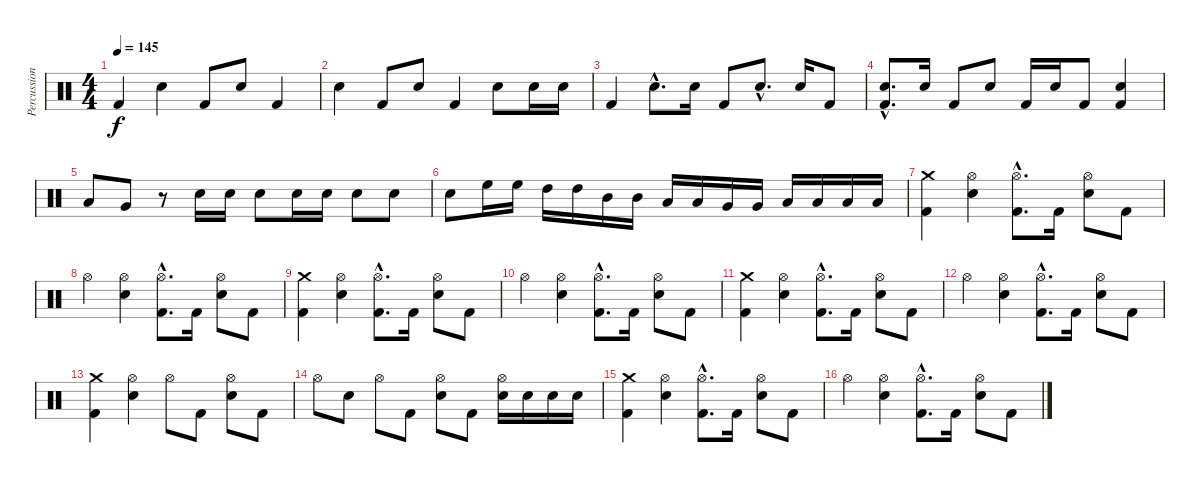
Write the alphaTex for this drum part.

\track ("Percussion" "Percussion") {instrument percussion}
\staff {score}
\articulation defaults
\ts (4 4)
\tempo 145
\clef neutral
\ks c "Kick (hit) 2".4{dy f} "Snare (hit) 2".4 "Kick (hit) 2".8 "Snare (hit) 2".8 "Kick (hit) 2".4
|
"Snare (hit) 2".4 "Kick (hit) 2".8 "Snare (hit) 2".8 "Kick (hit) 2".4 "Snare (hit) 2".8 "Snare (hit) 2".16 "Snare (hit) 2".16 |
"Kick (hit) 2".4 "Snare (hit) 2"{hac}.8{d} "Snare (hit) 2".16 "Kick (hit) 2".8 "Snare (hit) 2"{hac}.8{d} "Snare (hit) 2".16 "Kick (hit) 2".8 |
("Snare (hit) 2"{hac} "Kick (hit) 2"{hac}).8{d} "Snare (hit) 2".16 "Kick (hit) 2".8 "Snare (hit) 2".8 "Kick (hit) 2".16 "Snare (hit) 2".16 "Kick (hit) 2".8 ("Snare (hit) 2" "Kick (hit) 2").4 |
"Low Tom (hit)".8 "Very Low Tom (hit)".8 r.8 "Snare (hit) 2".16 "Snare (hit) 2".16 "Snare (hit) 2".8 "Snare (hit) 2".16 "Snare (hit) 2".16 "Snare (hit) 2".8 "Snare (hit) 2".8 |
"Snare (hit) 2".8 "High Floor Tom (hit)".16 "High Floor Tom (hit)".16 "High Tom (hit)".16 "High Tom (hit)".16 "Mid Tom (hit)".16 "Mid Tom (hit)".16 "Low Tom (hit)".16 "Low Tom (hit)".16 "Very Low Tom (hit)".16 "Very Low Tom (hit)".16 "Low Floor Tom (hit)".16 "Low Floor Tom (hit)".16 "Low Floor Tom (hit)".16 "Low Floor Tom (hit)".16 |
("Crash medium (hit)" "Kick (hit) 2").4 ("Hi-Hat (open)" "Snare (hit) 2").4 ("Hi-Hat (open)"{hac} "Kick (hit) 2"{hac}).8{d} "Kick (hit) 2".16 ("Hi-Hat (open)" "Snare (hit) 2").8 "Kick (hit) 2".8 |
"Hi-Hat (open)".4 ("Hi-Hat (open)" "Snare (hit) 2").4 ("Hi-Hat (open)"{hac} "Kick (hit) 2"{hac}).8{d} "Kick (hit) 2".16 ("Hi-Hat (open)" "Snare (hit) 2").8 "Kick (hit) 2".8 |
("Crash medium (hit)" "Kick (hit) 2").4 ("Hi-Hat (open)" "Snare (hit) 2").4 ("Hi-Hat (open)"{hac} "Kick (hit) 2"{hac}).8{d} "Kick (hit) 2".16 ("Hi-Hat (open)" "Snare (hit) 2").8 "Kick (hit) 2".8 |
"Hi-Hat (open)".4 ("Hi-Hat (open)" "Snare (hit) 2").4 ("Hi-Hat (open)"{hac} "Kick (hit) 2"{hac}).8{d} "Kick (hit) 2".16 ("Hi-Hat (open)" "Snare (hit) 2").8 "Kick (hit) 2".8 |
("Crash medium (hit)" "Kick (hit) 2").4 ("Hi-Hat (open)" "Snare (hit) 2").4 ("Hi-Hat (open)"{hac} "Kick (hit) 2"{hac}).8{d} "Kick (hit) 2".16 ("Hi-Hat (open)" "Snare (hit) 2").8 "Kick (hit) 2".8 |
"Hi-Hat (open)".4 ("Hi-Hat (open)" "Snare (hit) 2").4 ("Hi-Hat (open)"{hac} "Kick (hit) 2"{hac}).8{d} "Kick (hit) 2".16 ("Hi-Hat (open)" "Snare (hit) 2").8 "Kick (hit) 2".8 |
("Crash medium (hit)" "Kick (hit) 2").4 ("Hi-Hat (open)" "Snare (hit) 2").4 "Hi-Hat (open)".8 "Kick (hit) 2".8 ("Hi-Hat (open)" "Snare (hit) 2").8 "Kick (hit) 2".8 |
"Hi-Hat (open)".8 "Snare (hit) 2".8 "Hi-Hat (open)".8 "Kick (hit) 2".8 ("Hi-Hat (open)" "Snare (hit) 2").8 "Kick (hit) 2".8 ("Hi-Hat (open)" "Snare (hit) 2").16 "Snare (hit) 2".16 "Snare (hit) 2".16 "Snare (hit) 2".16 |
("Crash medium (hit)" "Kick (hit) 2").4 ("Hi-Hat (open)" "Snare (hit) 2").4 ("Hi-Hat (open)"{hac} "Kick (hit) 2"{hac}).8{d} "Kick (hit) 2".16 ("Hi-Hat (open)" "Snare (hit) 2").8 "Kick (hit) 2".8 |
"Hi-Hat (open)".4 ("Hi-Hat (open)" "Snare (hit) 2").4 ("Hi-Hat (open)"{hac} "Kick (hit) 2"{hac}).8{d} "Kick (hit) 2".16 ("Hi-Hat (open)" "Snare (hit) 2").8 "Kick (hit) 2".8
